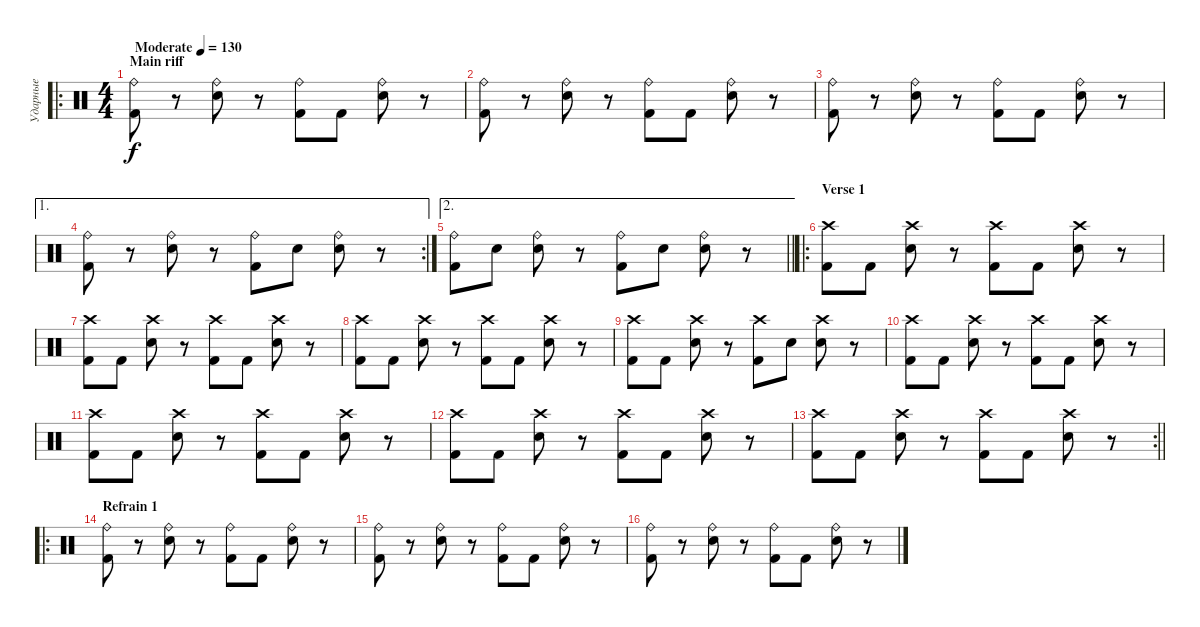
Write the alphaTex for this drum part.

\track ("Ударные" "Ударные") {instrument percussion}
\staff {score}
\articulation defaults
\ro
\ts (4 4)
\section ("" "Main riff")
\tempo (130 "Moderate")
\clef neutral
\ks c
("Ride (bell)" "Kick (hit) 2").8{dy f} r.8 ("Ride (bell)" "Electric Snare (hit)").8 r.8 ("Ride (bell)" "Kick (hit) 2").8 "Kick (hit) 2".8 ("Ride (bell)" "Electric Snare (hit)").8 r.8 |
("Ride (bell)" "Kick (hit) 2").8 r.8 ("Ride (bell)" "Electric Snare (hit)").8 r.8 ("Ride (bell)" "Kick (hit) 2").8 "Kick (hit) 2".8 ("Ride (bell)" "Electric Snare (hit)").8 r.8 |
("Ride (bell)" "Kick (hit) 2").8 r.8 ("Ride (bell)" "Electric Snare (hit)").8 r.8 ("Ride (bell)" "Kick (hit) 2").8 "Kick (hit) 2".8 ("Ride (bell)" "Electric Snare (hit)").8 r.8 |
\ae 1
\rc 2
("Ride (bell)" "Kick (hit) 2").8 r.8 ("Ride (bell)" "Electric Snare (hit)").8 r.8 ("Ride (bell)" "Kick (hit) 2").8 "Electric Snare (hit)".8 ("Ride (bell)" "Electric Snare (hit)").8 r.8 |
\ae 2
\barLineRight lightlight
("Ride (bell)" "Kick (hit) 2").8 "Electric Snare (hit)".8 ("Ride (bell)" "Electric Snare (hit)").8 r.8 ("Ride (bell)" "Kick (hit) 2").8 "Electric Snare (hit)".8 ("Ride (bell)" "Electric Snare (hit)").8 r.8 |
\ro
\section ("" "Verse 1")
("Crash high (hit)" "Kick (hit) 2").8 "Kick (hit) 2".8 ("Crash high (hit)" "Electric Snare (hit)").8 r.8 ("Crash high (hit)" "Kick (hit) 2").8 "Kick (hit) 2".8 ("Crash high (hit)" "Electric Snare (hit)").8 r.8 |
("Crash high (hit)" "Kick (hit) 2").8 "Kick (hit) 2".8 ("Crash high (hit)" "Electric Snare (hit)").8 r.8 ("Crash high (hit)" "Kick (hit) 2").8 "Kick (hit) 2".8 ("Crash high (hit)" "Electric Snare (hit)").8 r.8 |
("Crash high (hit)" "Kick (hit) 2").8 "Kick (hit) 2".8 ("Crash high (hit)" "Electric Snare (hit)").8 r.8 ("Crash high (hit)" "Kick (hit) 2").8 "Kick (hit) 2".8 ("Crash high (hit)" "Electric Snare (hit)").8 r.8 |
("Crash high (hit)" "Kick (hit) 2").8 "Kick (hit) 2".8 ("Crash high (hit)" "Electric Snare (hit)").8 r.8 ("Crash high (hit)" "Kick (hit) 2").8 "Electric Snare (hit)".8 ("Crash high (hit)" "Electric Snare (hit)").8 r.8 |
("Crash high (hit)" "Kick (hit) 2").8 "Kick (hit) 2".8 ("Crash high (hit)" "Electric Snare (hit)").8 r.8 ("Crash high (hit)" "Kick (hit) 2").8 "Kick (hit) 2".8 ("Crash high (hit)" "Electric Snare (hit)").8 r.8 |
("Crash high (hit)" "Kick (hit) 2").8 "Kick (hit) 2".8 ("Crash high (hit)" "Electric Snare (hit)").8 r.8 ("Crash high (hit)" "Kick (hit) 2").8 "Kick (hit) 2".8 ("Crash high (hit)" "Electric Snare (hit)").8 r.8 |
("Crash high (hit)" "Kick (hit) 2").8 "Kick (hit) 2".8 ("Crash high (hit)" "Electric Snare (hit)").8 r.8 ("Crash high (hit)" "Kick (hit) 2").8 "Kick (hit) 2".8 ("Crash high (hit)" "Electric Snare (hit)").8 r.8 |
\rc 2
\barLineRight lightlight
("Crash high (hit)" "Kick (hit) 2").8 "Kick (hit) 2".8 ("Crash high (hit)" "Electric Snare (hit)").8 r.8 ("Crash high (hit)" "Kick (hit) 2").8 "Kick (hit) 2".8 ("Crash high (hit)" "Electric Snare (hit)").8 r.8 |
\ro
\section ("" "Refrain 1")
("Ride (bell)" "Kick (hit) 2").8 r.8 ("Ride (bell)" "Electric Snare (hit)").8 r.8 ("Ride (bell)" "Kick (hit) 2").8 "Kick (hit) 2".8 ("Ride (bell)" "Electric Snare (hit)").8 r.8 |
("Ride (bell)" "Kick (hit) 2").8 r.8 ("Ride (bell)" "Electric Snare (hit)").8 r.8 ("Ride (bell)" "Kick (hit) 2").8 "Kick (hit) 2".8 ("Ride (bell)" "Electric Snare (hit)").8 r.8 |
("Ride (bell)" "Kick (hit) 2").8 r.8 ("Ride (bell)" "Electric Snare (hit)").8 r.8 ("Ride (bell)" "Kick (hit) 2").8 "Kick (hit) 2".8 ("Ride (bell)" "Electric Snare (hit)").8 r.8
